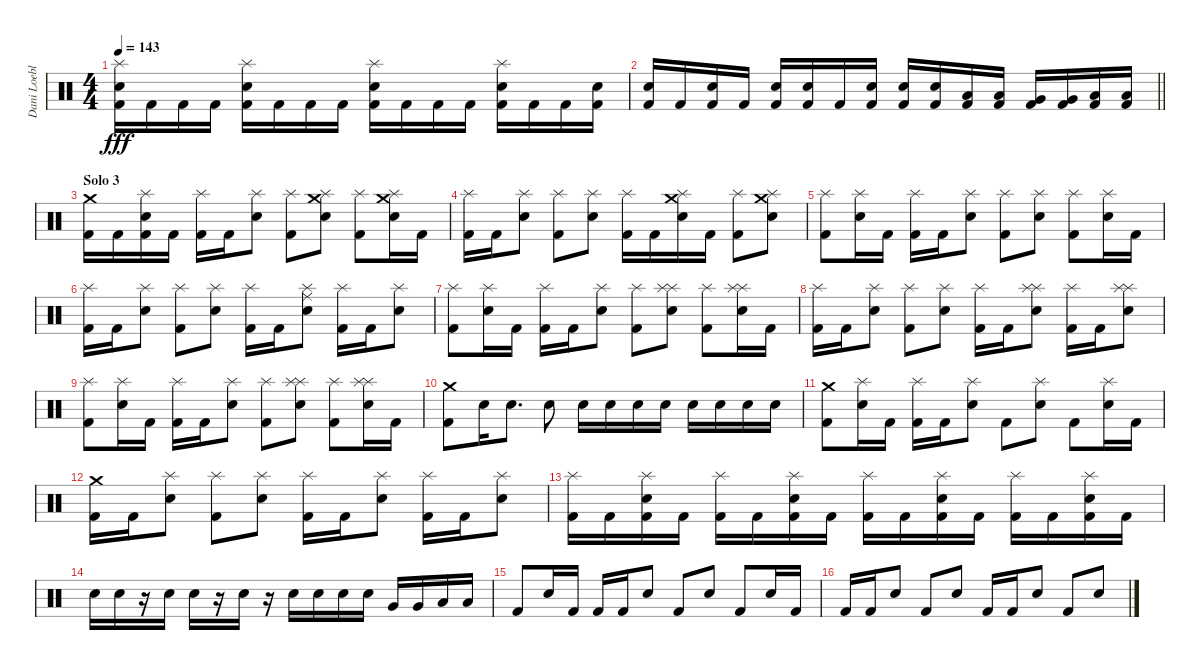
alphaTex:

\track ("Dani Loeble" "Dani Loebl") {instrument percussion}
\staff {score}
\articulation defaults
\ts (4 4)
\tempo 143
\clef neutral
\ks c
("Splash (hit)" "Electric Snare (hit)" "Kick (hit) 2").16{dy fff} "Kick (hit) 2".16 "Kick (hit) 2".16 "Kick (hit) 2".16 ("Splash (hit)" "Electric Snare (hit)" "Kick (hit) 2").16 "Kick (hit) 2".16 "Kick (hit) 2".16 "Kick (hit) 2".16 ("Splash (hit)" "Electric Snare (hit)" "Kick (hit) 2").16 "Kick (hit) 2".16 "Kick (hit) 2".16 "Kick (hit) 2".16 ("Splash (hit)" "Electric Snare (hit)" "Kick (hit) 2").16 "Kick (hit) 2".16 "Kick (hit) 2".16 ("Electric Snare (hit)" "Kick (hit) 2").16 |
\barLineRight lightlight
("Electric Snare (hit)" "Kick (hit) 2").16 "Kick (hit) 2".16 ("Electric Snare (hit)" "Kick (hit) 2").16 "Kick (hit) 2".16 ("Electric Snare (hit)" "Kick (hit) 2").16 ("Electric Snare (hit)" "Kick (hit) 2").16 "Kick (hit) 2".16 ("Electric Snare (hit)" "Kick (hit) 2").16 ("Electric Snare (hit)" "Kick (hit) 2").16 ("Electric Snare (hit)" "Kick (hit) 2").16 ("Low Tom (hit)" "Kick (hit) 2").16 ("Low Tom (hit)" "Kick (hit) 2").16 ("Very Low Tom (hit)" "Kick (hit) 2").16 ("Very Low Tom (hit)" "Kick (hit) 2").16 ("Low Floor Tom (hit)" "Kick (hit) 2").16 ("Low Floor Tom (hit)" "Kick (hit) 2").16 |
\section ("" "Solo 3")
("Crash medium (hit)" "Kick (hit) 2").16 "Kick (hit) 2".16 ("Splash (hit)" "Electric Snare (hit)" "Kick (hit) 2").16 "Kick (hit) 2".16 ("Splash (hit)" "Kick (hit) 2").16 "Kick (hit) 2".16 ("Splash (hit)" "Electric Snare (hit)").8 ("Splash (hit)" "Kick (hit) 2").8 ("Splash (hit)" "Crash medium (hit)" "Electric Snare (hit)").8 ("Splash (hit)" "Kick (hit) 2").8 ("Splash (hit)" "Crash medium (hit)" "Electric Snare (hit)").16 "Kick (hit) 2".16 |
("Splash (hit)" "Kick (hit) 2").16 "Kick (hit) 2".16 ("Splash (hit)" "Electric Snare (hit)").8 ("Splash (hit)" "Kick (hit) 2").8 ("Splash (hit)" "Electric Snare (hit)").8 ("Splash (hit)" "Kick (hit) 2").16 "Kick (hit) 2".16 ("Splash (hit)" "Crash medium (hit)" "Electric Snare (hit)").16 "Kick (hit) 2".16 ("Splash (hit)" "Kick (hit) 2").8 ("Splash (hit)" "Crash medium (hit)" "Electric Snare (hit)").8 |
("Splash (hit)" "Kick (hit) 2").8 ("Splash (hit)" "Electric Snare (hit)").16 "Kick (hit) 2".16 ("Splash (hit)" "Kick (hit) 2").16 "Kick (hit) 2".16 ("Splash (hit)" "Electric Snare (hit)").8 ("Splash (hit)" "Kick (hit) 2").8 ("Splash (hit)" "Electric Snare (hit)").8 ("Splash (hit)" "Kick (hit) 2").8 ("Splash (hit)" "Electric Snare (hit)").16 "Kick (hit) 2".16 |
("Splash (hit)" "Kick (hit) 2").16 "Kick (hit) 2".16 ("Splash (hit)" "Electric Snare (hit)").8 ("Splash (hit)" "Kick (hit) 2").8 ("Splash (hit)" "Electric Snare (hit)").8 ("Splash (hit)" "Kick (hit) 2").16 "Kick (hit) 2".16 ("Splash (hit)" "Ride (middle)" "Electric Snare (hit)").8 ("Splash (hit)" "Kick (hit) 2").16 "Kick (hit) 2".16 ("Splash (hit)" "Electric Snare (hit)").8 |
("Splash (hit)" "Kick (hit) 2").8 ("Splash (hit)" "Electric Snare (hit)").16 "Kick (hit) 2".16 ("Splash (hit)" "Kick (hit) 2").16 "Kick (hit) 2".16 ("Splash (hit)" "Electric Snare (hit)").8 ("Splash (hit)" "Kick (hit) 2").8 ("Splash (hit)" "Splash (hit)" "Electric Snare (hit)").8 ("Splash (hit)" "Kick (hit) 2").8 ("Splash (hit)" "Splash (hit)" "Electric Snare (hit)").16 "Kick (hit) 2".16 |
("Splash (hit)" "Kick (hit) 2").16 "Kick (hit) 2".16 ("Splash (hit)" "Electric Snare (hit)").8 ("Splash (hit)" "Kick (hit) 2").8 ("Splash (hit)" "Electric Snare (hit)").8 ("Splash (hit)" "Kick (hit) 2").16 "Kick (hit) 2".16 ("Splash (hit)" "Splash (hit)" "Electric Snare (hit)").8 ("Splash (hit)" "Kick (hit) 2").16 "Kick (hit) 2".16 ("Splash (hit)" "Splash (hit)" "Electric Snare (hit)").8 |
("Splash (hit)" "Kick (hit) 2").8 ("Splash (hit)" "Electric Snare (hit)").16 "Kick (hit) 2".16 ("Splash (hit)" "Kick (hit) 2").16 "Kick (hit) 2".16 ("Splash (hit)" "Electric Snare (hit)").8 ("Splash (hit)" "Kick (hit) 2").8 ("Splash (hit)" "Splash (hit)" "Electric Snare (hit)").8 ("Splash (hit)" "Kick (hit) 2").8 ("Splash (hit)" "Splash (hit)" "Electric Snare (hit)").16 "Kick (hit) 2".16 |
("Crash medium (hit)" "Kick (hit) 2").8 "Electric Snare (hit)".16 "Electric Snare (hit)".8{d} "Electric Snare (hit)".8 "Electric Snare (hit)".16 "Electric Snare (hit)".16 "Electric Snare (hit)".16 "Electric Snare (hit)".16 "Electric Snare (hit)".16 "Electric Snare (hit)".16 "Electric Snare (hit)".16 "Electric Snare (hit)".16 |
("Crash medium (hit)" "Kick (hit) 2").8 ("Splash (hit)" "Electric Snare (hit)").16 "Kick (hit) 2".16 ("Splash (hit)" "Kick (hit) 2").16 "Kick (hit) 2".16 ("Splash (hit)" "Electric Snare (hit)").8 "Kick (hit) 2".8 ("Splash (hit)" "Electric Snare (hit)").8 "Kick (hit) 2".8 ("Splash (hit)" "Electric Snare (hit)").16 "Kick (hit) 2".16 |
("Crash medium (hit)" "Kick (hit) 2").16 "Kick (hit) 2".16 ("Splash (hit)" "Electric Snare (hit)").8 ("Splash (hit)" "Kick (hit) 2").8 ("Splash (hit)" "Electric Snare (hit)").8 ("Splash (hit)" "Kick (hit) 2").16 "Kick (hit) 2".16 ("Splash (hit)" "Electric Snare (hit)").8 ("Splash (hit)" "Kick (hit) 2").16 "Kick (hit) 2".16 ("Splash (hit)" "Electric Snare (hit)").8 |
("Splash (hit)" "Kick (hit) 2").16 "Kick (hit) 2".16 ("Splash (hit)" "Electric Snare (hit)" "Kick (hit) 2").16 "Kick (hit) 2".16 ("Splash (hit)" "Kick (hit) 2").16 "Kick (hit) 2".16 ("Splash (hit)" "Electric Snare (hit)" "Kick (hit) 2").16 "Kick (hit) 2".16 ("Splash (hit)" "Kick (hit) 2").16 "Kick (hit) 2".16 ("Splash (hit)" "Electric Snare (hit)" "Kick (hit) 2").16 "Kick (hit) 2".16 ("Splash (hit)" "Kick (hit) 2").16 "Kick (hit) 2".16 ("Splash (hit)" "Electric Snare (hit)" "Kick (hit) 2").16 "Kick (hit) 2".16 |
"Electric Snare (hit)".16 "Electric Snare (hit)".16 r.16 "Electric Snare (hit)".16 "Electric Snare (hit)".16 r.16 "Electric Snare (hit)".16 r.16 "Electric Snare (hit)".16 "Electric Snare (hit)".16 "Electric Snare (hit)".16 "Electric Snare (hit)".16 "Very Low Tom (hit)".16 "Very Low Tom (hit)".16 "Low Floor Tom (hit)".16 "Low Floor Tom (hit)".16 |
"Kick (hit) 2".8 "Electric Snare (hit)".16 "Kick (hit) 2".16 "Kick (hit) 2".16 "Kick (hit) 2".16 "Electric Snare (hit)".8 "Kick (hit) 2".8 "Electric Snare (hit)".8 "Kick (hit) 2".8 "Electric Snare (hit)".16 "Kick (hit) 2".16 |
"Kick (hit) 2".16 "Kick (hit) 2".16 "Electric Snare (hit)".8 "Kick (hit) 2".8 "Electric Snare (hit)".8 "Kick (hit) 2".16 "Kick (hit) 2".16 "Electric Snare (hit)".8 "Kick (hit) 2".8 "Electric Snare (hit)".8
